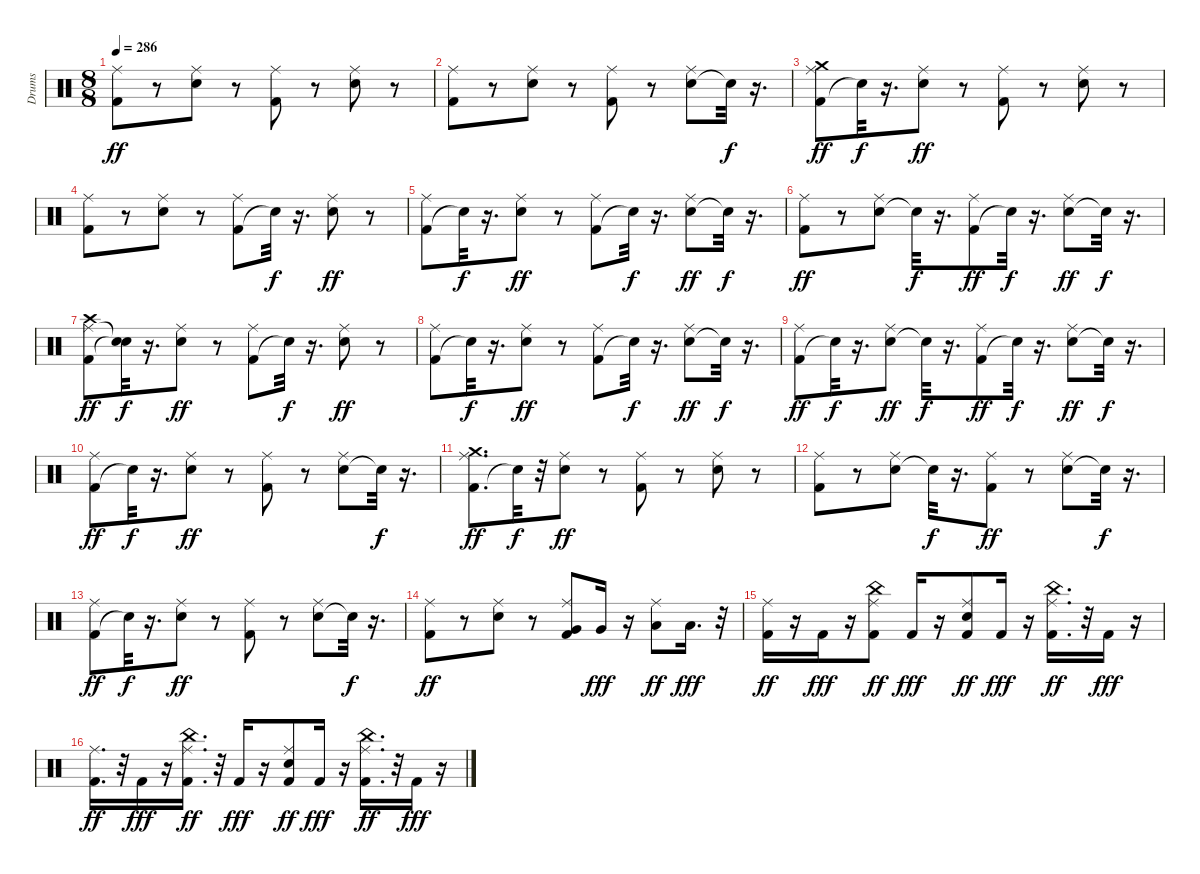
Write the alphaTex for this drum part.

\track ("Drums" "Drums") {instrument percussion}
\staff {score}
\articulation defaults
\ts (8 8)
\tempo 286
\clef neutral
\ks c
("Kick (hit) 2" "Ride (middle)").8{dy ff} r.8 ("Snare (hit) 2" "Ride (middle)").8 r.8 ("Kick (hit) 2" "Ride (middle)").8 r.8 ("Snare (hit) 2" "Ride (middle)").8 r.8 |
("Kick (hit) 2" "Ride (middle)").8 r.8 ("Snare (hit) 2" "Ride (middle)").8 r.8 ("Kick (hit) 2" "Ride (middle)").8 r.8 ("Snare (hit) 2" "Ride (middle)").8 "Snare (hit)"{t}.32{dy f} r.16{d} |
("Kick (hit) 2" "Ride (middle)" "Crash medium (hit)").8{dy ff} "Snare (hit)"{t}.32{dy f} r.16{d} ("Snare (hit) 2" "Ride (middle)").8{dy ff} r.8 ("Kick (hit) 2" "Ride (middle)").8 r.8 ("Snare (hit) 2" "Ride (middle)").8 r.8 |
("Kick (hit) 2" "Ride (middle)").8 r.8 ("Snare (hit) 2" "Ride (middle)").8 r.8 ("Kick (hit) 2" "Ride (middle)").8 "Snare (hit)"{t}.32{dy f} r.16{d} ("Snare (hit) 2" "Ride (middle)").8{dy ff} r.8 |
("Kick (hit) 2" "Ride (middle)").8 "Snare (hit)"{t}.32{dy f} r.16{d} ("Snare (hit) 2" "Ride (middle)").8{dy ff} r.8 ("Kick (hit) 2" "Ride (middle)").8 "Snare (hit)"{t}.32{dy f} r.16{d} ("Snare (hit) 2" "Ride (middle)").8{dy ff} "Snare (hit)"{t}.32{dy f} r.16{d} |
("Kick (hit) 2" "Ride (middle)").8{dy ff} r.8 ("Snare (hit) 2" "Ride (middle)").8 "Snare (hit)"{t}.32{dy f} r.16{d} ("Kick (hit) 2" "Ride (middle)").8{dy ff} "Snare (hit)"{t}.32{dy f} r.16{d} ("Snare (hit) 2" "Ride (middle)").8{dy ff} "Snare (hit)"{t}.32{dy f} r.16{d} |
("Kick (hit) 2" "Ride (middle)" "Crash high (hit)").8{dy ff} ("Snare (hit)"{t} "Snare (hit)"{t}).32{dy f} r.16{d} ("Snare (hit) 2" "Ride (middle)").8{dy ff} r.8 ("Kick (hit) 2" "Ride (middle)").8 "Snare (hit)"{t}.32{dy f} r.16{d} ("Snare (hit) 2" "Ride (middle)").8{dy ff} r.8 |
("Kick (hit) 2" "Ride (middle)").8 "Snare (hit)"{t}.32{dy f} r.16{d} ("Snare (hit) 2" "Ride (middle)").8{dy ff} r.8 ("Kick (hit) 2" "Ride (middle)").8 "Snare (hit)"{t}.32{dy f} r.16{d} ("Snare (hit) 2" "Ride (middle)").8{dy ff} "Snare (hit)"{t}.32{dy f} r.16{d} |
("Kick (hit) 2" "Ride (middle)").8{dy ff} "Snare (hit)"{t}.32{dy f} r.16{d} ("Snare (hit) 2" "Ride (middle)").8{dy ff} "Snare (hit)"{t}.32{dy f} r.16{d} ("Kick (hit) 2" "Ride (middle)").8{dy ff} "Snare (hit)"{t}.32{dy f} r.16{d} ("Snare (hit) 2" "Ride (middle)").8{dy ff} "Snare (hit)"{t}.32{dy f} r.16{d} |
("Kick (hit) 2" "Ride (middle)").8{dy ff} "Snare (hit)"{t}.32{dy f} r.16{d} ("Snare (hit) 2" "Ride (middle)").8{dy ff} r.8 ("Kick (hit) 2" "Ride (middle)").8 r.8 ("Snare (hit) 2" "Ride (middle)").8 "Snare (hit)"{t}.32{dy f} r.16{d} |
("Kick (hit) 2" "Ride (middle)" "Crash medium (hit)").8{d dy ff} "Snare (hit)"{t}.32{dy f} r.32 ("Snare (hit) 2" "Ride (middle)").8{dy ff} r.8 ("Kick (hit) 2" "Ride (middle)").8 r.8 ("Snare (hit) 2" "Ride (middle)").8 r.8 |
("Kick (hit) 2" "Ride (middle)").8 r.8 ("Snare (hit) 2" "Ride (middle)").8 "Snare (hit)"{t}.32{dy f} r.16{d} ("Kick (hit) 2" "Ride (middle)").8{dy ff} r.8 ("Snare (hit) 2" "Ride (middle)").8 "Snare (hit)"{t}.32{dy f} r.16{d} |
("Kick (hit) 2" "Ride (middle)").8{dy ff} "Snare (hit)"{t}.32{dy f} r.16{d} ("Snare (hit) 2" "Ride (middle)").8{dy ff} r.8 ("Kick (hit) 2" "Ride (middle)").8 r.8 ("Snare (hit) 2" "Ride (middle)").8 "Snare (hit)"{t}.32{dy f} r.16{d} |
("Kick (hit) 2" "Ride (middle)").8{dy ff} r.8 ("Snare (hit) 2" "Ride (middle)").8 r.8 ("Kick (hit) 2" "Very Low Tom (hit)" "Ride (middle)").8 "Very Low Tom (hit)".16{dy fff} r.16 ("Low Floor Tom (hit)" "Ride (middle)").8{dy ff} "Low Floor Tom (hit)".16{d dy fff} r.32 |
("Kick (hit) 2" "Ride (middle)").16{dy ff} r.16 "Kick (hit) 2".16{dy fff} r.16 ("Kick (hit) 2" "Ride (middle)" "China (hit)").8{dy ff} "Kick (hit) 2".16{dy fff} r.16 ("Kick (hit) 2" "Snare (hit) 2" "Ride (middle)").8{dy ff} "Kick (hit) 2".16{dy fff} r.16 ("Kick (hit) 2" "Ride (middle)" "China (hit)").16{d dy ff} r.32 "Kick (hit) 2".16{dy fff} r.16 |
("Kick (hit) 2" "Ride (middle)").16{d dy ff} r.32 "Kick (hit) 2".16{dy fff} r.16 ("Kick (hit) 2" "Ride (middle)" "China (hit)").16{d dy ff} r.32 "Kick (hit) 2".16{dy fff} r.16 ("Kick (hit) 2" "Snare (hit) 2" "Ride (middle)").8{dy ff} "Kick (hit) 2".16{dy fff} r.16 ("Kick (hit) 2" "Ride (middle)" "China (hit)").16{d dy ff} r.32 "Kick (hit) 2".16{dy fff} r.16
